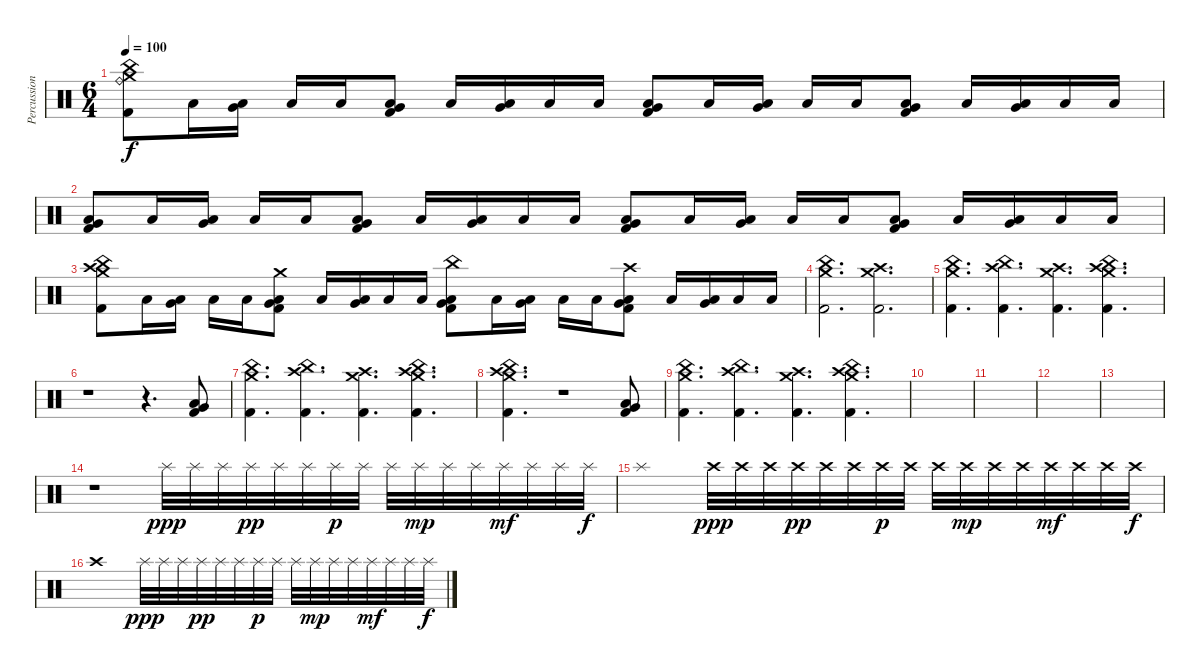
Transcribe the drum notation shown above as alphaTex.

\track ("Percussion" "Percussion") {instrument percussion}
\staff {score}
\articulation defaults
\ts (6 4)
\tempo 100
\clef neutral
\ks c
("Crash medium (hit)" "Ride (bell)" "China (hit)" "Kick (hit) 2").8{dy f} "Low Floor Tom (hit)".16 ("Very Low Tom (hit)" "Low Floor Tom (hit)").16 "Low Floor Tom (hit)".16 "Low Floor Tom (hit)".16 ("Very Low Tom (hit)" "Low Floor Tom (hit)" "Kick (hit) 2").8 "Low Floor Tom (hit)".16 ("Very Low Tom (hit)" "Low Floor Tom (hit)").16 "Low Floor Tom (hit)".16 "Low Floor Tom (hit)".16 ("Very Low Tom (hit)" "Low Floor Tom (hit)" "Kick (hit) 2").8 "Low Floor Tom (hit)".16 ("Very Low Tom (hit)" "Low Floor Tom (hit)").16 "Low Floor Tom (hit)".16 "Low Floor Tom (hit)".16 ("Very Low Tom (hit)" "Low Floor Tom (hit)" "Kick (hit) 2").8 "Low Floor Tom (hit)".16 ("Very Low Tom (hit)" "Low Floor Tom (hit)").16 "Low Floor Tom (hit)".16 "Low Floor Tom (hit)".16 |
("Very Low Tom (hit)" "Low Floor Tom (hit)" "Kick (hit) 2").8 "Low Floor Tom (hit)".16 ("Very Low Tom (hit)" "Low Floor Tom (hit)").16 "Low Floor Tom (hit)".16 "Low Floor Tom (hit)".16 ("Very Low Tom (hit)" "Low Floor Tom (hit)" "Kick (hit) 2").8 "Low Floor Tom (hit)".16 ("Very Low Tom (hit)" "Low Floor Tom (hit)").16 "Low Floor Tom (hit)".16 "Low Floor Tom (hit)".16 ("Very Low Tom (hit)" "Low Floor Tom (hit)" "Kick (hit) 2").8 "Low Floor Tom (hit)".16 ("Very Low Tom (hit)" "Low Floor Tom (hit)").16 "Low Floor Tom (hit)".16 "Low Floor Tom (hit)".16 ("Very Low Tom (hit)" "Low Floor Tom (hit)" "Kick (hit) 2").8 "Low Floor Tom (hit)".16 ("Very Low Tom (hit)" "Low Floor Tom (hit)").16 "Low Floor Tom (hit)".16 "Low Floor Tom (hit)".16 |
("Crash medium (hit)" "Crash high (hit)" "China (hit)" "Kick (hit) 2").8 "Low Floor Tom (hit)".16 ("Very Low Tom (hit)" "Low Floor Tom (hit)").16 "Low Floor Tom (hit)".16 "Low Floor Tom (hit)".16 ("Crash medium (hit)" "Very Low Tom (hit)" "Low Floor Tom (hit)" "Kick (hit) 2").8 "Low Floor Tom (hit)".16 ("Very Low Tom (hit)" "Low Floor Tom (hit)").16 "Low Floor Tom (hit)".16 "Low Floor Tom (hit)".16 ("China (hit)" "Very Low Tom (hit)" "Low Floor Tom (hit)" "Kick (hit) 2").8 "Low Floor Tom (hit)".16 ("Very Low Tom (hit)" "Low Floor Tom (hit)").16 "Low Floor Tom (hit)".16 "Low Floor Tom (hit)".16 ("Crash high (hit)" "Very Low Tom (hit)" "Low Floor Tom (hit)" "Kick (hit) 2").8 "Low Floor Tom (hit)".16 ("Very Low Tom (hit)" "Low Floor Tom (hit)").16 "Low Floor Tom (hit)".16 "Low Floor Tom (hit)".16 |
("Crash medium (hit)" "China (hit)" "Kick (hit) 2").2{d} ("Crash medium (hit)" "Crash high (hit)" "Kick (hit) 2").2{d} |
("Crash medium (hit)" "China (hit)" "Kick (hit) 2").4{d} ("Crash high (hit)" "China (hit)" "Kick (hit) 2").4{d} ("Crash medium (hit)" "Crash high (hit)" "Kick (hit) 2").4{d} ("Crash medium (hit)" "China (hit)" "Crash high (hit)" "Kick (hit) 2").4{d} |
r.1 r.4{d} ("Very Low Tom (hit)" "Low Floor Tom (hit)" "Kick (hit) 2").8 |
("Crash medium (hit)" "China (hit)" "Kick (hit) 2").4{d} ("Crash high (hit)" "China (hit)" "Kick (hit) 2").4{d} ("Crash medium (hit)" "Crash high (hit)" "Kick (hit) 2").4{d} ("Crash medium (hit)" "China (hit)" "Crash high (hit)" "Kick (hit) 2").4{d} |
("Crash medium (hit)" "China (hit)" "Crash high (hit)" "Kick (hit) 2").4{d} r.1 ("Very Low Tom (hit)" "Low Floor Tom (hit)" "Kick (hit) 2").8 |
("Crash medium (hit)" "China (hit)" "Kick (hit) 2").4{d} ("Crash high (hit)" "China (hit)" "Kick (hit) 2").4{d} ("Crash medium (hit)" "Crash high (hit)" "Kick (hit) 2").4{d} ("Crash medium (hit)" "China (hit)" "Crash high (hit)" "Kick (hit) 2").4{d} |
|
|
|
|
r.1 "Splash (hit)".32{dy ppp} "Splash (hit)".32 "Splash (hit)".32 "Splash (hit)".32{dy pp} "Splash (hit)".32 "Splash (hit)".32 "Splash (hit)".32{dy p} "Splash (hit)".32 "Splash (hit)".32 "Splash (hit)".32{dy mp} "Splash (hit)".32 "Splash (hit)".32 "Splash (hit)".32{dy mf} "Splash (hit)".32 "Splash (hit)".32 "Splash (hit)".32{dy f} |
"Splash (hit)".1 "Crash high (hit)".32{dy ppp} "Crash high (hit)".32 "Crash high (hit)".32 "Crash high (hit)".32{dy pp} "Crash high (hit)".32 "Crash high (hit)".32 "Crash high (hit)".32{dy p} "Crash high (hit)".32 "Crash high (hit)".32 "Crash high (hit)".32{dy mp} "Crash high (hit)".32 "Crash high (hit)".32 "Crash high (hit)".32{dy mf} "Crash high (hit)".32 "Crash high (hit)".32 "Crash high (hit)".32{dy f} |
"Crash high (hit)".1 "Splash (hit)".32{dy ppp} "Splash (hit)".32 "Splash (hit)".32 "Splash (hit)".32{dy pp} "Splash (hit)".32 "Splash (hit)".32 "Splash (hit)".32{dy p} "Splash (hit)".32 "Splash (hit)".32 "Splash (hit)".32{dy mp} "Splash (hit)".32 "Splash (hit)".32 "Splash (hit)".32{dy mf} "Splash (hit)".32 "Splash (hit)".32 "Splash (hit)".32{dy f}
